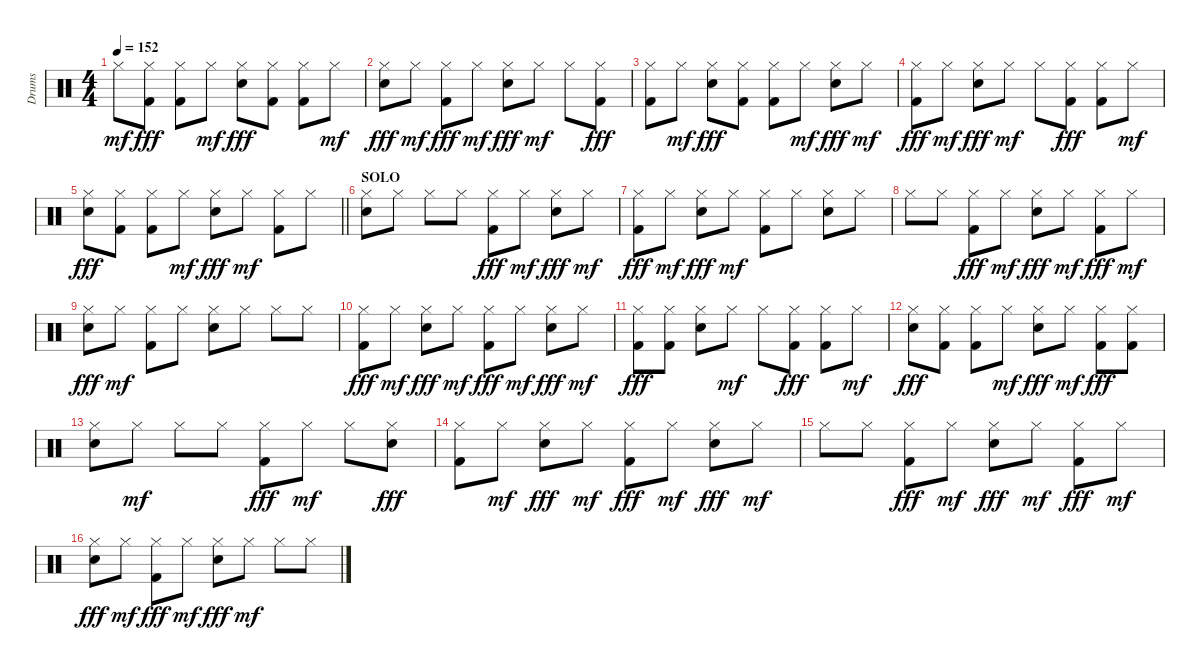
\track ("Drums" "Drums") {instrument percussion}
\staff {score}
\articulation defaults
\ts (4 4)
\tempo 152
\clef neutral
\ks c "Hi-Hat (closed)".8{dy mf}
("Hi-Hat (closed)" "Kick (hit) 2").8{dy fff} ("Hi-Hat (closed)" "Kick (hit) 2").8 "Hi-Hat (closed)".8{dy mf} ("Hi-Hat (closed)" "Electric Snare (hit)").8{dy fff} ("Hi-Hat (closed)" "Kick (hit) 2").8 ("Hi-Hat (closed)" "Kick (hit) 2").8 "Hi-Hat (closed)".8{dy mf} |
("Hi-Hat (closed)" "Electric Snare (hit)").8{dy fff} "Hi-Hat (closed)".8{dy mf} ("Hi-Hat (closed)" "Kick (hit) 2").8{dy fff} "Hi-Hat (closed)".8{dy mf} ("Hi-Hat (closed)" "Electric Snare (hit)").8{dy fff} "Hi-Hat (closed)".8{dy mf} "Hi-Hat (closed)".8 ("Hi-Hat (closed)" "Kick (hit) 2").8{dy fff} |
("Hi-Hat (closed)" "Kick (hit) 2").8 "Hi-Hat (closed)".8{dy mf} ("Hi-Hat (closed)" "Electric Snare (hit)").8{dy fff} ("Hi-Hat (closed)" "Kick (hit) 2").8 ("Hi-Hat (closed)" "Kick (hit) 2").8 "Hi-Hat (closed)".8{dy mf} ("Hi-Hat (closed)" "Electric Snare (hit)").8{dy fff} "Hi-Hat (closed)".8{dy mf} |
("Hi-Hat (closed)" "Kick (hit) 2").8{dy fff} "Hi-Hat (closed)".8{dy mf} ("Hi-Hat (closed)" "Electric Snare (hit)").8{dy fff} "Hi-Hat (closed)".8{dy mf} "Hi-Hat (closed)".8 ("Hi-Hat (closed)" "Kick (hit) 2").8{dy fff} ("Hi-Hat (closed)" "Kick (hit) 2").8 "Hi-Hat (closed)".8{dy mf} |
\barLineRight lightlight
("Hi-Hat (closed)" "Electric Snare (hit)").8{dy fff} ("Hi-Hat (closed)" "Kick (hit) 2").8 ("Hi-Hat (closed)" "Kick (hit) 2").8 "Hi-Hat (closed)".8{dy mf} ("Hi-Hat (closed)" "Electric Snare (hit)").8{dy fff} "Hi-Hat (closed)".8{dy mf} ("Kick (hit) 2" "Hi-Hat (closed)").8 "Hi-Hat (closed)".8 |
\section ("" "SOLO")
("Electric Snare (hit)" "Hi-Hat (closed)").8 "Hi-Hat (closed)".8 "Hi-Hat (closed)".8 "Hi-Hat (closed)".8 ("Hi-Hat (closed)" "Kick (hit) 2").8{dy fff} "Hi-Hat (closed)".8{dy mf} ("Hi-Hat (closed)" "Electric Snare (hit)").8{dy fff} "Hi-Hat (closed)".8{dy mf} |
("Hi-Hat (closed)" "Kick (hit) 2").8{dy fff} "Hi-Hat (closed)".8{dy mf} ("Hi-Hat (closed)" "Electric Snare (hit)").8{dy fff} "Hi-Hat (closed)".8{dy mf} ("Kick (hit) 2" "Hi-Hat (closed)").8 "Hi-Hat (closed)".8 ("Electric Snare (hit)" "Hi-Hat (closed)").8 "Hi-Hat (closed)".8 |
"Hi-Hat (closed)".8 "Hi-Hat (closed)".8 ("Hi-Hat (closed)" "Kick (hit) 2").8{dy fff} "Hi-Hat (closed)".8{dy mf} ("Hi-Hat (closed)" "Electric Snare (hit)").8{dy fff} "Hi-Hat (closed)".8{dy mf} ("Hi-Hat (closed)" "Kick (hit) 2").8{dy fff} "Hi-Hat (closed)".8{dy mf} |
("Hi-Hat (closed)" "Electric Snare (hit)").8{dy fff} "Hi-Hat (closed)".8{dy mf} ("Kick (hit) 2" "Hi-Hat (closed)").8 "Hi-Hat (closed)".8 ("Electric Snare (hit)" "Hi-Hat (closed)").8 "Hi-Hat (closed)".8 "Hi-Hat (closed)".8 "Hi-Hat (closed)".8 |
("Hi-Hat (closed)" "Kick (hit) 2").8{dy fff} "Hi-Hat (closed)".8{dy mf} ("Hi-Hat (closed)" "Electric Snare (hit)").8{dy fff} "Hi-Hat (closed)".8{dy mf} ("Hi-Hat (closed)" "Kick (hit) 2").8{dy fff} "Hi-Hat (closed)".8{dy mf} ("Hi-Hat (closed)" "Electric Snare (hit)").8{dy fff} "Hi-Hat (closed)".8{dy mf} |
("Hi-Hat (closed)" "Kick (hit) 2").8{dy fff} ("Hi-Hat (closed)" "Kick (hit) 2").8 ("Hi-Hat (closed)" "Electric Snare (hit)").8 "Hi-Hat (closed)".8{dy mf} "Hi-Hat (closed)".8 ("Hi-Hat (closed)" "Kick (hit) 2").8{dy fff} ("Hi-Hat (closed)" "Kick (hit) 2").8 "Hi-Hat (closed)".8{dy mf} |
("Hi-Hat (closed)" "Electric Snare (hit)").8{dy fff} ("Hi-Hat (closed)" "Kick (hit) 2").8 ("Hi-Hat (closed)" "Kick (hit) 2").8 "Hi-Hat (closed)".8{dy mf} ("Hi-Hat (closed)" "Electric Snare (hit)").8{dy fff} "Hi-Hat (closed)".8{dy mf} ("Hi-Hat (closed)" "Kick (hit) 2").8{dy fff} ("Hi-Hat (closed)" "Kick (hit) 2").8 |
("Hi-Hat (closed)" "Electric Snare (hit)").8 "Hi-Hat (closed)".8{dy mf} "Hi-Hat (closed)".8 "Hi-Hat (closed)".8 ("Hi-Hat (closed)" "Kick (hit) 2").8{dy fff} "Hi-Hat (closed)".8{dy mf} "Hi-Hat (closed)".8 ("Hi-Hat (closed)" "Electric Snare (hit)").8{dy fff} |
("Hi-Hat (closed)" "Kick (hit) 2").8 "Hi-Hat (closed)".8{dy mf} ("Hi-Hat (closed)" "Electric Snare (hit)").8{dy fff} "Hi-Hat (closed)".8{dy mf} ("Hi-Hat (closed)" "Kick (hit) 2").8{dy fff} "Hi-Hat (closed)".8{dy mf} ("Hi-Hat (closed)" "Electric Snare (hit)").8{dy fff} "Hi-Hat (closed)".8{dy mf} |
"Hi-Hat (closed)".8 "Hi-Hat (closed)".8 ("Hi-Hat (closed)" "Kick (hit) 2").8{dy fff} "Hi-Hat (closed)".8{dy mf} ("Hi-Hat (closed)" "Electric Snare (hit)").8{dy fff} "Hi-Hat (closed)".8{dy mf} ("Hi-Hat (closed)" "Kick (hit) 2").8{dy fff} "Hi-Hat (closed)".8{dy mf} |
("Hi-Hat (closed)" "Electric Snare (hit)").8{dy fff} "Hi-Hat (closed)".8{dy mf} ("Hi-Hat (closed)" "Kick (hit) 2").8{dy fff} "Hi-Hat (closed)".8{dy mf} ("Hi-Hat (closed)" "Electric Snare (hit)").8{dy fff} "Hi-Hat (closed)".8{dy mf} "Hi-Hat (closed)".8 "Hi-Hat (closed)".8
